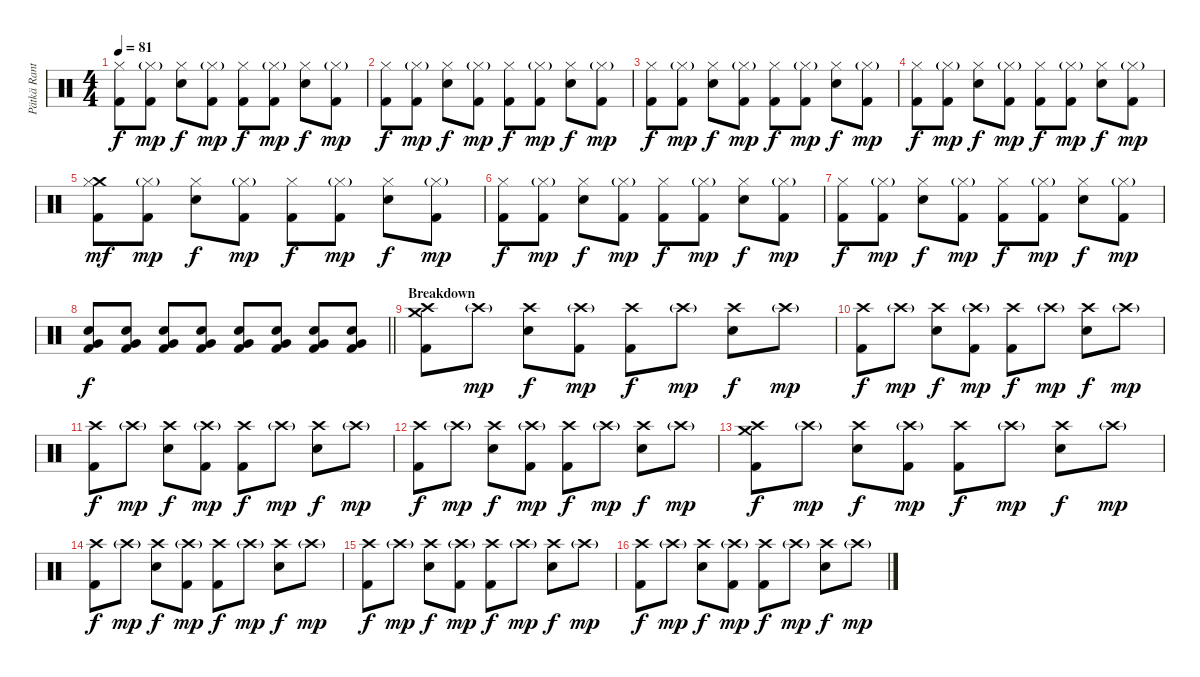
\track ("Pätkä Rantala (Drums)" "Pätkä Rant") {instrument percussion}
\staff {score}
\articulation defaults
\ts (4 4)
\tempo 81
\clef neutral
\ks c
("Hi-Hat (closed)" "Kick (hit) 2").8{dy f} ("Hi-Hat (closed)"{g} "Kick (hit) 2").8{dy mp} ("Hi-Hat (closed)" "Snare (hit) 2").8{dy f} ("Hi-Hat (closed)"{g} "Kick (hit) 2").8{dy mp} ("Hi-Hat (closed)" "Kick (hit) 2").8{dy f} ("Hi-Hat (closed)"{g} "Kick (hit) 2").8{dy mp} ("Hi-Hat (closed)" "Snare (hit) 2").8{dy f} ("Hi-Hat (closed)"{g} "Kick (hit) 2").8{dy mp} |
("Hi-Hat (closed)" "Kick (hit) 2").8{dy f} ("Hi-Hat (closed)"{g} "Kick (hit) 2").8{dy mp} ("Hi-Hat (closed)" "Snare (hit) 2").8{dy f} ("Hi-Hat (closed)"{g} "Kick (hit) 2").8{dy mp} ("Hi-Hat (closed)" "Kick (hit) 2").8{dy f} ("Hi-Hat (closed)"{g} "Kick (hit) 2").8{dy mp} ("Hi-Hat (closed)" "Snare (hit) 2").8{dy f} ("Hi-Hat (closed)"{g} "Kick (hit) 2").8{dy mp} |
("Hi-Hat (closed)" "Kick (hit) 2").8{dy f} ("Hi-Hat (closed)"{g} "Kick (hit) 2").8{dy mp} ("Hi-Hat (closed)" "Snare (hit) 2").8{dy f} ("Hi-Hat (closed)"{g} "Kick (hit) 2").8{dy mp} ("Hi-Hat (closed)" "Kick (hit) 2").8{dy f} ("Hi-Hat (closed)"{g} "Kick (hit) 2").8{dy mp} ("Hi-Hat (closed)" "Snare (hit) 2").8{dy f} ("Hi-Hat (closed)"{g} "Kick (hit) 2").8{dy mp} |
("Hi-Hat (closed)" "Kick (hit) 2").8{dy f} ("Hi-Hat (closed)"{g} "Kick (hit) 2").8{dy mp} ("Hi-Hat (closed)" "Snare (hit) 2").8{dy f} ("Hi-Hat (closed)"{g} "Kick (hit) 2").8{dy mp} ("Hi-Hat (closed)" "Kick (hit) 2").8{dy f} ("Hi-Hat (closed)"{g} "Kick (hit) 2").8{dy mp} ("Hi-Hat (closed)" "Snare (hit) 2").8{dy f} ("Hi-Hat (closed)"{g} "Kick (hit) 2").8{dy mp} |
("Crash medium (hit)" "Hi-Hat (closed)" "Kick (hit) 2").8{dy mf} ("Hi-Hat (closed)"{g} "Kick (hit) 2").8{dy mp} ("Hi-Hat (closed)" "Snare (hit) 2").8{dy f} ("Hi-Hat (closed)"{g} "Kick (hit) 2").8{dy mp} ("Hi-Hat (closed)" "Kick (hit) 2").8{dy f} ("Hi-Hat (closed)"{g} "Kick (hit) 2").8{dy mp} ("Hi-Hat (closed)" "Snare (hit) 2").8{dy f} ("Hi-Hat (closed)"{g} "Kick (hit) 2").8{dy mp} |
("Hi-Hat (closed)" "Kick (hit) 2").8{dy f} ("Hi-Hat (closed)"{g} "Kick (hit) 2").8{dy mp} ("Hi-Hat (closed)" "Snare (hit) 2").8{dy f} ("Hi-Hat (closed)"{g} "Kick (hit) 2").8{dy mp} ("Hi-Hat (closed)" "Kick (hit) 2").8{dy f} ("Hi-Hat (closed)"{g} "Kick (hit) 2").8{dy mp} ("Hi-Hat (closed)" "Snare (hit) 2").8{dy f} ("Hi-Hat (closed)"{g} "Kick (hit) 2").8{dy mp} |
("Hi-Hat (closed)" "Kick (hit) 2").8{dy f} ("Hi-Hat (closed)"{g} "Kick (hit) 2").8{dy mp} ("Hi-Hat (closed)" "Snare (hit) 2").8{dy f} ("Hi-Hat (closed)"{g} "Kick (hit) 2").8{dy mp} ("Hi-Hat (closed)" "Kick (hit) 2").8{dy f} ("Hi-Hat (closed)"{g} "Kick (hit) 2").8{dy mp} ("Hi-Hat (closed)" "Snare (hit) 2").8{dy f} ("Hi-Hat (closed)"{g} "Kick (hit) 2").8{dy mp} |
\barLineRight lightlight
("Very Low Tom (hit)" "Snare (hit) 2" "Kick (hit) 2").8{dy f} ("Very Low Tom (hit)" "Snare (hit) 2" "Kick (hit) 2").8 ("Very Low Tom (hit)" "Snare (hit) 2" "Kick (hit) 2").8 ("Very Low Tom (hit)" "Snare (hit) 2" "Kick (hit) 2").8 ("Very Low Tom (hit)" "Snare (hit) 2" "Kick (hit) 2").8 ("Very Low Tom (hit)" "Snare (hit) 2" "Kick (hit) 2").8 ("Very Low Tom (hit)" "Snare (hit) 2" "Kick (hit) 2").8 ("Very Low Tom (hit)" "Snare (hit) 2" "Kick (hit) 2").8 |
\section ("" "Breakdown")
("Crash medium (hit)" "Crash high (hit)" "Kick (hit) 2").8 "Crash high (hit)"{g}.8{dy mp} ("Crash high (hit)" "Snare (hit) 2").8{dy f} ("Crash high (hit)"{g} "Kick (hit) 2").8{dy mp} ("Crash high (hit)" "Kick (hit) 2").8{dy f} "Crash high (hit)"{g}.8{dy mp} ("Crash high (hit)" "Snare (hit) 2").8{dy f} "Crash high (hit)"{g}.8{dy mp} |
("Crash high (hit)" "Kick (hit) 2").8{dy f} "Crash high (hit)"{g}.8{dy mp} ("Crash high (hit)" "Snare (hit) 2").8{dy f} ("Crash high (hit)"{g} "Kick (hit) 2").8{dy mp} ("Crash high (hit)" "Kick (hit) 2").8{dy f} "Crash high (hit)"{g}.8{dy mp} ("Crash high (hit)" "Snare (hit) 2").8{dy f} "Crash high (hit)"{g}.8{dy mp} |
("Crash high (hit)" "Kick (hit) 2").8{dy f} "Crash high (hit)"{g}.8{dy mp} ("Crash high (hit)" "Snare (hit) 2").8{dy f} ("Crash high (hit)"{g} "Kick (hit) 2").8{dy mp} ("Crash high (hit)" "Kick (hit) 2").8{dy f} "Crash high (hit)"{g}.8{dy mp} ("Crash high (hit)" "Snare (hit) 2").8{dy f} "Crash high (hit)"{g}.8{dy mp} |
("Crash high (hit)" "Kick (hit) 2").8{dy f} "Crash high (hit)"{g}.8{dy mp} ("Crash high (hit)" "Snare (hit) 2").8{dy f} ("Crash high (hit)"{g} "Kick (hit) 2").8{dy mp} ("Crash high (hit)" "Kick (hit) 2").8{dy f} "Crash high (hit)"{g}.8{dy mp} ("Crash high (hit)" "Snare (hit) 2").8{dy f} "Crash high (hit)"{g}.8{dy mp} |
("Crash medium (hit)" "Crash high (hit)" "Kick (hit) 2").8{dy f} "Crash high (hit)"{g}.8{dy mp} ("Crash high (hit)" "Snare (hit) 2").8{dy f} ("Crash high (hit)"{g} "Kick (hit) 2").8{dy mp} ("Crash high (hit)" "Kick (hit) 2").8{dy f} "Crash high (hit)"{g}.8{dy mp} ("Crash high (hit)" "Snare (hit) 2").8{dy f} "Crash high (hit)"{g}.8{dy mp} |
("Crash high (hit)" "Kick (hit) 2").8{dy f} "Crash high (hit)"{g}.8{dy mp} ("Crash high (hit)" "Snare (hit) 2").8{dy f} ("Crash high (hit)"{g} "Kick (hit) 2").8{dy mp} ("Crash high (hit)" "Kick (hit) 2").8{dy f} "Crash high (hit)"{g}.8{dy mp} ("Crash high (hit)" "Snare (hit) 2").8{dy f} "Crash high (hit)"{g}.8{dy mp} |
("Crash high (hit)" "Kick (hit) 2").8{dy f} "Crash high (hit)"{g}.8{dy mp} ("Crash high (hit)" "Snare (hit) 2").8{dy f} ("Crash high (hit)"{g} "Kick (hit) 2").8{dy mp} ("Crash high (hit)" "Kick (hit) 2").8{dy f} "Crash high (hit)"{g}.8{dy mp} ("Crash high (hit)" "Snare (hit) 2").8{dy f} "Crash high (hit)"{g}.8{dy mp} |
("Crash high (hit)" "Kick (hit) 2").8{dy f} "Crash high (hit)"{g}.8{dy mp} ("Crash high (hit)" "Snare (hit) 2").8{dy f} ("Crash high (hit)"{g} "Kick (hit) 2").8{dy mp} ("Crash high (hit)" "Kick (hit) 2").8{dy f} "Crash high (hit)"{g}.8{dy mp} ("Crash high (hit)" "Snare (hit) 2").8{dy f} "Crash high (hit)"{g}.8{dy mp}
